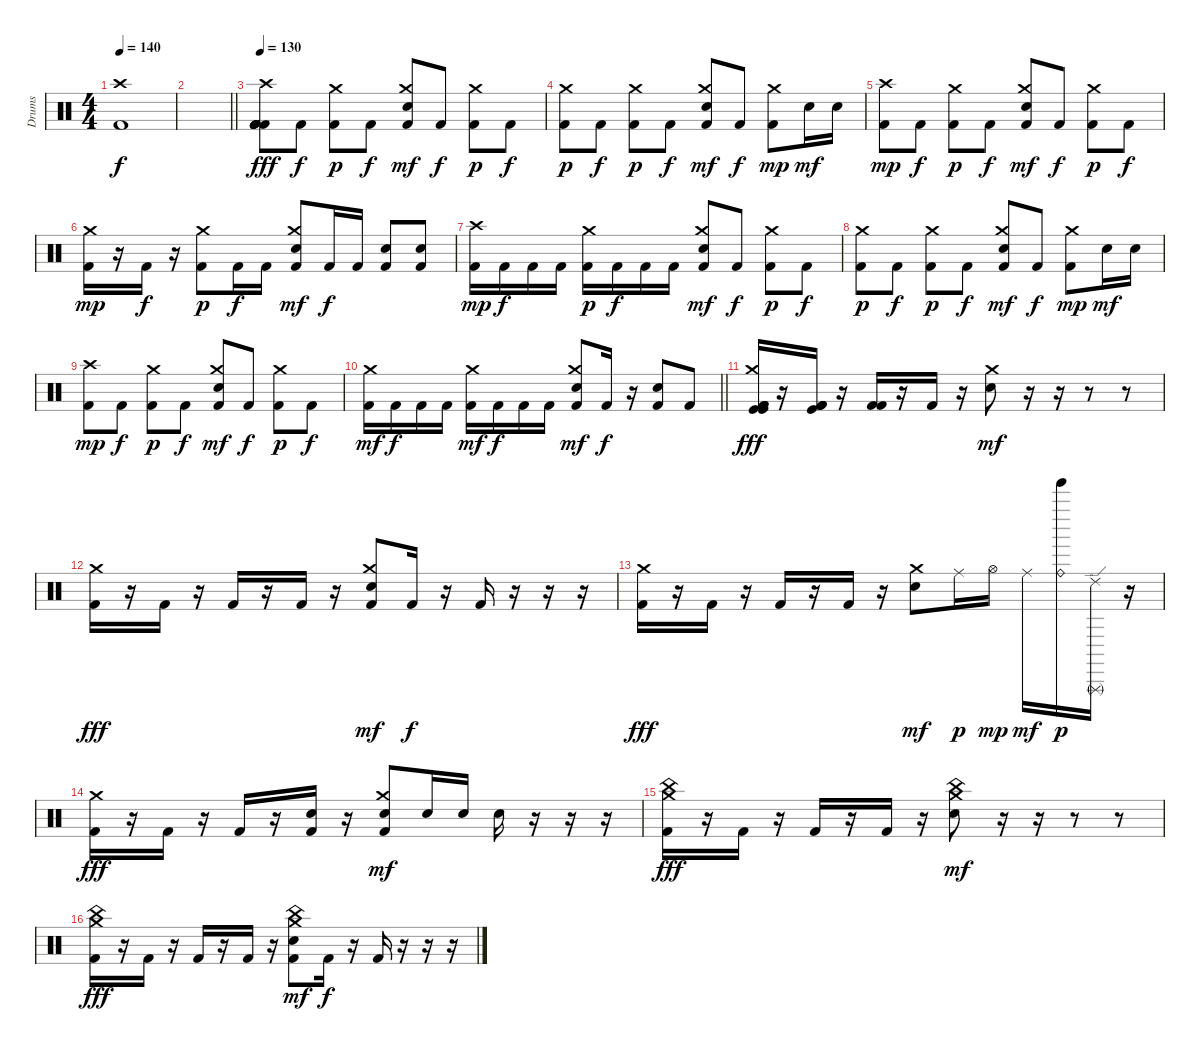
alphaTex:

\track ("Drums" "Drums") {instrument percussion}
\staff {score}
\articulation defaults
\ts (4 4)
\tempo 140
\clef neutral
\ks c
("Crash high (hit)" "Kick (hit) 2").1{dy f} |
\barLineRight lightlight
|
\tempo 130
("Crash high (hit)" "Kick (hit) 2" "Kick (hit) 2" "Kick (hit) 2" "Kick (hit) 2" "Kick (hit) 2").8{dy fff} "Kick (hit) 2".8{dy f} ("Crash medium (hit)" "Kick (hit) 2").8{dy p} "Kick (hit) 2".8{dy f} ("Crash medium (hit)" "Snare (hit) 2" "Kick (hit) 2").8{dy mf} "Kick (hit) 2".8{dy f} ("Crash medium (hit)" "Kick (hit) 2").8{dy p} "Kick (hit) 2".8{dy f} |
("Crash medium (hit)" "Kick (hit) 2").8{dy p} "Kick (hit) 2".8{dy f} ("Crash medium (hit)" "Kick (hit) 2").8{dy p} "Kick (hit) 2".8{dy f} ("Crash medium (hit)" "Snare (hit) 2" "Kick (hit) 2").8{dy mf} "Kick (hit) 2".8{dy f} ("Crash medium (hit)" "Kick (hit) 2").8{dy mp} "Snare (hit) 2".16{dy mf} "Snare (hit) 2".16 |
("Crash high (hit)" "Kick (hit) 2").8{dy mp} "Kick (hit) 2".8{dy f} ("Crash medium (hit)" "Kick (hit) 2").8{dy p} "Kick (hit) 2".8{dy f} ("Crash medium (hit)" "Snare (hit) 2" "Kick (hit) 2").8{dy mf} "Kick (hit) 2".8{dy f} ("Crash medium (hit)" "Kick (hit) 2").8{dy p} "Kick (hit) 2".8{dy f} |
("Crash medium (hit)" "Kick (hit) 2").16{dy mp} r.16 "Kick (hit) 2".16{dy f} r.16 ("Crash medium (hit)" "Kick (hit) 2").8{dy p} "Kick (hit) 2".16{dy f} "Kick (hit) 2".16 ("Crash medium (hit)" "Snare (hit) 2" "Kick (hit) 2").8{dy mf} "Kick (hit) 2".16{dy f} "Kick (hit) 2".16 ("Snare (hit) 2" "Kick (hit) 2").8 ("Snare (hit) 2" "Kick (hit) 2").8 |
("Crash high (hit)" "Kick (hit) 2").16{dy mp} "Kick (hit) 2".16{dy f} "Kick (hit) 2".16 "Kick (hit) 2".16 ("Crash medium (hit)" "Kick (hit) 2").16{dy p} "Kick (hit) 2".16{dy f} "Kick (hit) 2".16 "Kick (hit) 2".16 ("Crash medium (hit)" "Snare (hit) 2" "Kick (hit) 2").8{dy mf} "Kick (hit) 2".8{dy f} ("Crash medium (hit)" "Kick (hit) 2").8{dy p} "Kick (hit) 2".8{dy f} |
("Crash medium (hit)" "Kick (hit) 2").8{dy p} "Kick (hit) 2".8{dy f} ("Crash medium (hit)" "Kick (hit) 2").8{dy p} "Kick (hit) 2".8{dy f} ("Crash medium (hit)" "Snare (hit) 2" "Kick (hit) 2").8{dy mf} "Kick (hit) 2".8{dy f} ("Crash medium (hit)" "Kick (hit) 2").8{dy mp} "Snare (hit) 2".16{dy mf} "Snare (hit) 2".16 |
("Crash high (hit)" "Kick (hit) 2").8{dy mp} "Kick (hit) 2".8{dy f} ("Crash medium (hit)" "Kick (hit) 2").8{dy p} "Kick (hit) 2".8{dy f} ("Crash medium (hit)" "Snare (hit) 2" "Kick (hit) 2").8{dy mf} "Kick (hit) 2".8{dy f} ("Crash medium (hit)" "Kick (hit) 2").8{dy p} "Kick (hit) 2".8{dy f} |
\barLineRight lightlight
("Crash medium (hit)" "Kick (hit) 2").16{dy mf} "Kick (hit) 2".16{dy f} "Kick (hit) 2".16 "Kick (hit) 2".16 ("Crash medium (hit)" "Kick (hit) 2").16{dy mf} "Kick (hit) 2".16{dy f} "Kick (hit) 2".16 "Kick (hit) 2".16 ("Crash medium (hit)" "Snare (hit) 2" "Kick (hit) 2").8{dy mf} "Kick (hit) 2".16{dy f} r.16 ("Snare (hit) 2" "Kick (hit) 2").8 "Kick (hit) 2".8 |
("Crash medium (hit)" "Kick (hit)" "Kick (hit)" "Kick (hit) 2" "Kick (hit) 2" "Kick (hit) 2").16{dy fff} r.16 ("Kick (hit)" "Kick (hit) 2" "Kick (hit) 2" "Kick (hit) 2").16 r.16 ("Kick (hit) 2" "Kick (hit) 2").16 r.16 "Kick (hit) 2".16 r.16 ("Crash medium (hit)" "Snare (hit) 2").8{dy mf} r.16 r.16 r.8 r.8 |
("Crash medium (hit)" "Kick (hit) 2").16{dy fff} r.16 "Kick (hit) 2".16 r.16 "Kick (hit) 2".16 r.16 "Kick (hit) 2".16 r.16 ("Crash medium (hit)" "Snare (hit) 2" "Kick (hit) 2").8{dy mf} "Kick (hit) 2".16{dy f} r.16 "Kick (hit) 2".16 r.16 r.16 r.16 |
("Crash medium (hit)" "Kick (hit) 2").16{dy fff} r.16 "Kick (hit) 2".16 r.16 "Kick (hit) 2".16 r.16 "Kick (hit) 2".16 r.16 ("Crash medium (hit)" "Snare (hit) 2").8{dy mf} "Ride (middle)".16{dy p} "Hi-Hat (open)".16{dy mp} "Ride (middle)".16{dy mf} ("Ride (bell)" "Tinkle Bell (hit)").16{dy p} ("Ride (edge) 2" "Triangle (rnute)").16 r.16 |
("Crash medium (hit)" "Kick (hit) 2").16{dy fff} r.16 "Kick (hit) 2".16 r.16 "Kick (hit) 2".16 r.16 ("Snare (hit) 2" "Kick (hit) 2").16 r.16 ("Crash medium (hit)" "Snare (hit) 2" "Kick (hit) 2").8{dy mf} "Snare (hit) 2".16 "Snare (hit) 2".16 "Snare (hit) 2".16 r.16 r.16 r.16 |
("China (hit)" "Crash medium (hit)" "Kick (hit) 2").16{dy fff} r.16 "Kick (hit) 2".16 r.16 "Kick (hit) 2".16 r.16 "Kick (hit) 2".16 r.16 ("China (hit)" "Crash medium (hit)" "Snare (hit) 2").8{dy mf} r.16 r.16 r.8 r.8 |
("China (hit)" "Crash medium (hit)" "Kick (hit) 2").16{dy fff} r.16 "Kick (hit) 2".16 r.16 "Kick (hit) 2".16 r.16 "Kick (hit) 2".16 r.16 ("China (hit)" "Crash medium (hit)" "Snare (hit) 2" "Kick (hit) 2").8{dy mf} "Kick (hit) 2".16{dy f} r.16 "Kick (hit) 2".16 r.16 r.16 r.16
